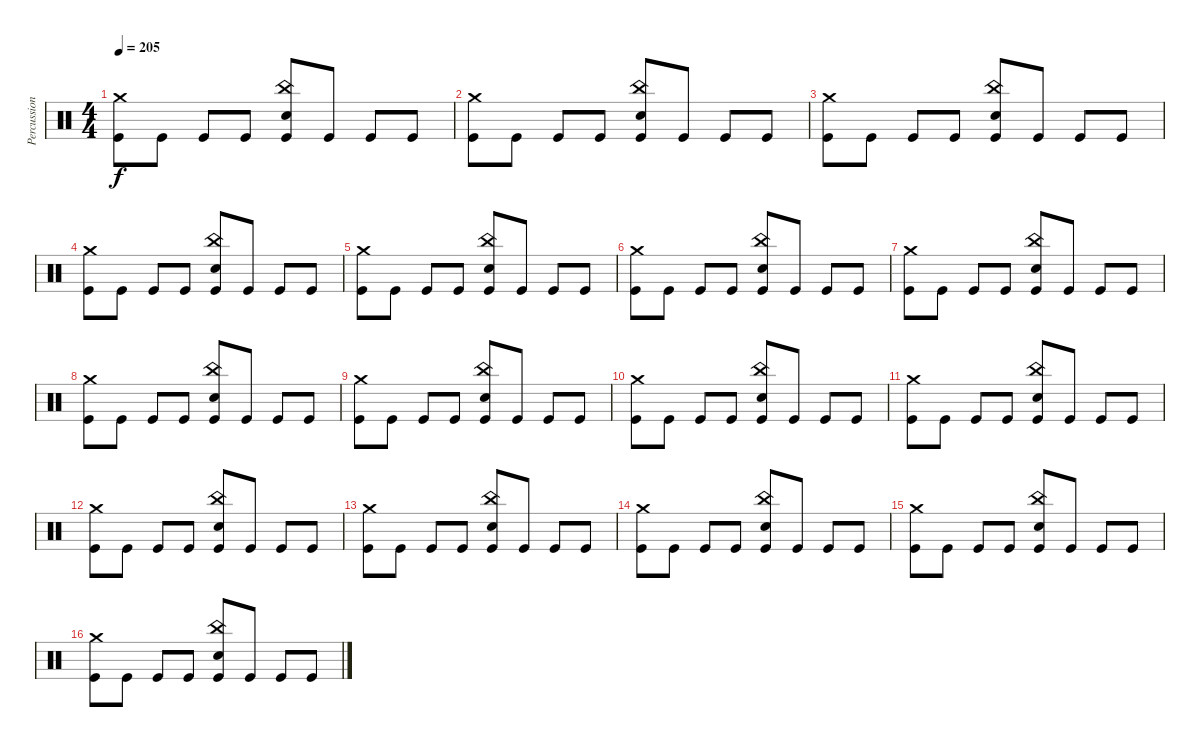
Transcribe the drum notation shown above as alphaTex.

\track ("Percussion" "Percussion") {instrument percussion}
\staff {score}
\articulation defaults
\ts (4 4)
\tempo 205
\clef neutral
\ks c
("Crash medium (hit)" "Kick (hit)").8{dy f} "Kick (hit)".8 "Kick (hit)".8 "Kick (hit)".8 ("China (hit)" "Electric Snare (hit)" "Kick (hit)").8 "Kick (hit)".8 "Kick (hit)".8 "Kick (hit)".8 |
("Crash medium (hit)" "Kick (hit)").8 "Kick (hit)".8 "Kick (hit)".8 "Kick (hit)".8 ("China (hit)" "Electric Snare (hit)" "Kick (hit)").8 "Kick (hit)".8 "Kick (hit)".8 "Kick (hit)".8 |
("Crash medium (hit)" "Kick (hit)").8 "Kick (hit)".8 "Kick (hit)".8 "Kick (hit)".8 ("China (hit)" "Electric Snare (hit)" "Kick (hit)").8 "Kick (hit)".8 "Kick (hit)".8 "Kick (hit)".8 |
("Crash medium (hit)" "Kick (hit)").8 "Kick (hit)".8 "Kick (hit)".8 "Kick (hit)".8 ("China (hit)" "Electric Snare (hit)" "Kick (hit)").8 "Kick (hit)".8 "Kick (hit)".8 "Kick (hit)".8 |
("Crash medium (hit)" "Kick (hit)").8 "Kick (hit)".8 "Kick (hit)".8 "Kick (hit)".8 ("China (hit)" "Electric Snare (hit)" "Kick (hit)").8 "Kick (hit)".8 "Kick (hit)".8 "Kick (hit)".8 |
("Crash medium (hit)" "Kick (hit)").8 "Kick (hit)".8 "Kick (hit)".8 "Kick (hit)".8 ("China (hit)" "Electric Snare (hit)" "Kick (hit)").8 "Kick (hit)".8 "Kick (hit)".8 "Kick (hit)".8 |
("Crash medium (hit)" "Kick (hit)").8 "Kick (hit)".8 "Kick (hit)".8 "Kick (hit)".8 ("China (hit)" "Electric Snare (hit)" "Kick (hit)").8 "Kick (hit)".8 "Kick (hit)".8 "Kick (hit)".8 |
("Crash medium (hit)" "Kick (hit)").8 "Kick (hit)".8 "Kick (hit)".8 "Kick (hit)".8 ("China (hit)" "Electric Snare (hit)" "Kick (hit)").8 "Kick (hit)".8 "Kick (hit)".8 "Kick (hit)".8 |
("Crash medium (hit)" "Kick (hit)").8 "Kick (hit)".8 "Kick (hit)".8 "Kick (hit)".8 ("China (hit)" "Electric Snare (hit)" "Kick (hit)").8 "Kick (hit)".8 "Kick (hit)".8 "Kick (hit)".8 |
("Crash medium (hit)" "Kick (hit)").8 "Kick (hit)".8 "Kick (hit)".8 "Kick (hit)".8 ("China (hit)" "Electric Snare (hit)" "Kick (hit)").8 "Kick (hit)".8 "Kick (hit)".8 "Kick (hit)".8 |
("Crash medium (hit)" "Kick (hit)").8 "Kick (hit)".8 "Kick (hit)".8 "Kick (hit)".8 ("China (hit)" "Electric Snare (hit)" "Kick (hit)").8 "Kick (hit)".8 "Kick (hit)".8 "Kick (hit)".8 |
("Crash medium (hit)" "Kick (hit)").8 "Kick (hit)".8 "Kick (hit)".8 "Kick (hit)".8 ("China (hit)" "Electric Snare (hit)" "Kick (hit)").8 "Kick (hit)".8 "Kick (hit)".8 "Kick (hit)".8 |
("Crash medium (hit)" "Kick (hit)").8 "Kick (hit)".8 "Kick (hit)".8 "Kick (hit)".8 ("China (hit)" "Electric Snare (hit)" "Kick (hit)").8 "Kick (hit)".8 "Kick (hit)".8 "Kick (hit)".8 |
("Crash medium (hit)" "Kick (hit)").8 "Kick (hit)".8 "Kick (hit)".8 "Kick (hit)".8 ("China (hit)" "Electric Snare (hit)" "Kick (hit)").8 "Kick (hit)".8 "Kick (hit)".8 "Kick (hit)".8 |
("Crash medium (hit)" "Kick (hit)").8 "Kick (hit)".8 "Kick (hit)".8 "Kick (hit)".8 ("China (hit)" "Electric Snare (hit)" "Kick (hit)").8 "Kick (hit)".8 "Kick (hit)".8 "Kick (hit)".8 |
("Crash medium (hit)" "Kick (hit)").8 "Kick (hit)".8 "Kick (hit)".8 "Kick (hit)".8 ("China (hit)" "Electric Snare (hit)" "Kick (hit)").8 "Kick (hit)".8 "Kick (hit)".8 "Kick (hit)".8
